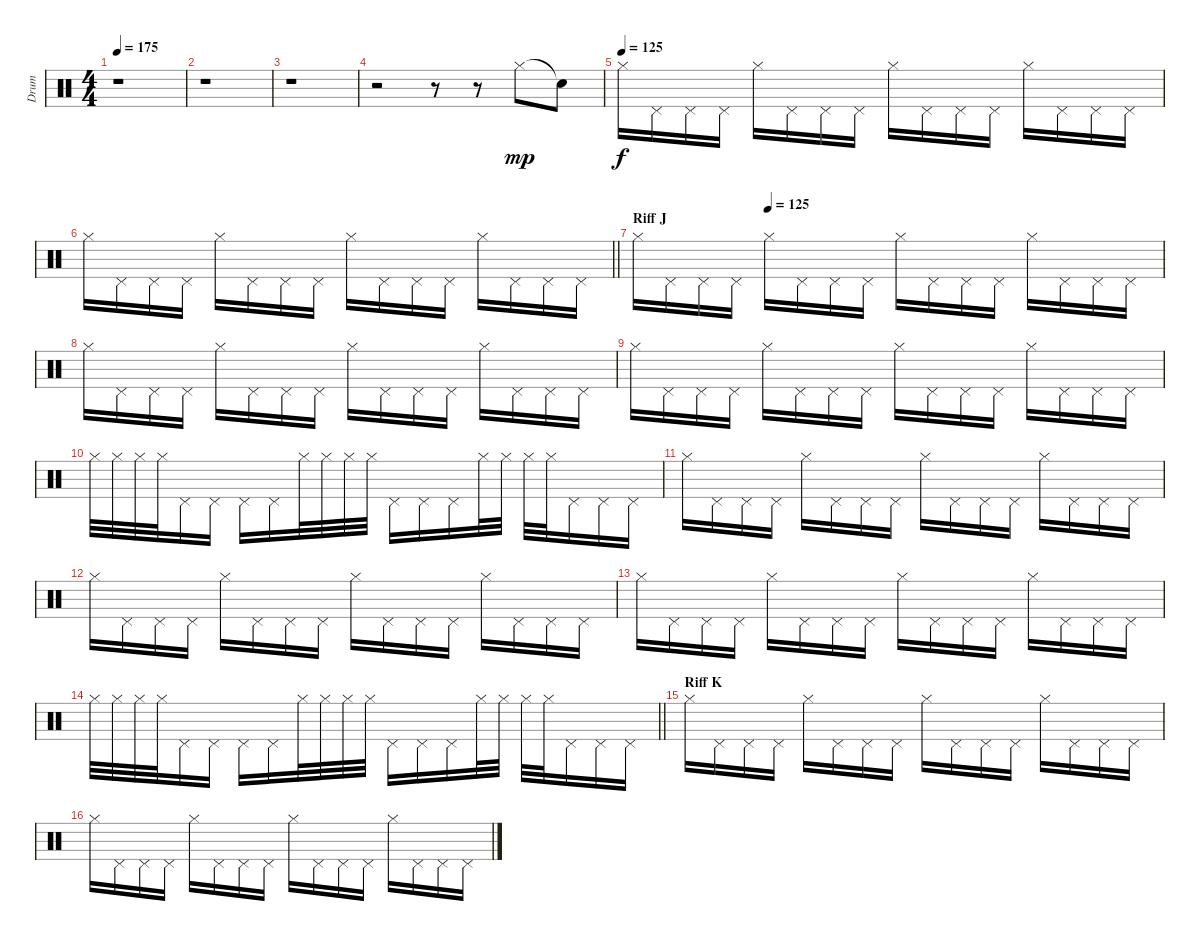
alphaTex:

\track ("Drum" "Drum") {instrument percussion}
\staff {score}
\articulation defaults
\ts (4 4)
\tempo 175
\clef neutral
\ks c
r.1{dy fff} |
r.1 |
r.1 |
r.2 r.8 r.8 "Hi-Hat (closed)".8{dy mp} "Snare (hit)"{t}.8 |
\tempo (125)
"Hi-Hat (closed)".16{dy f} "Pedal Hi-Hat (hit)".16 "Pedal Hi-Hat (hit)".16 "Pedal Hi-Hat (hit)".16 "Hi-Hat (closed)".16 "Pedal Hi-Hat (hit)".16 "Pedal Hi-Hat (hit)".16 "Pedal Hi-Hat (hit)".16 "Hi-Hat (closed)".16 "Pedal Hi-Hat (hit)".16 "Pedal Hi-Hat (hit)".16 "Pedal Hi-Hat (hit)".16 "Hi-Hat (closed)".16 "Pedal Hi-Hat (hit)".16 "Pedal Hi-Hat (hit)".16 "Pedal Hi-Hat (hit)".16 |
\barLineRight lightlight "Hi-Hat (closed)".16 "Pedal Hi-Hat (hit)".16 "Pedal Hi-Hat (hit)".16 "Pedal Hi-Hat (hit)".16 "Hi-Hat (closed)".16 "Pedal Hi-Hat (hit)".16 "Pedal Hi-Hat (hit)".16 "Pedal Hi-Hat (hit)".16 "Hi-Hat (closed)".16 "Pedal Hi-Hat (hit)".16 "Pedal Hi-Hat (hit)".16 "Pedal Hi-Hat (hit)".16 "Hi-Hat (closed)".16 "Pedal Hi-Hat (hit)".16 "Pedal Hi-Hat (hit)".16 "Pedal Hi-Hat (hit)".16
|
\section ("" "Riff J")
\tempo (135 0.25)
\tempo (125 0.25)
"Hi-Hat (closed)".16 "Pedal Hi-Hat (hit)".16 "Pedal Hi-Hat (hit)".16 "Pedal Hi-Hat (hit)".16 "Hi-Hat (closed)".16 "Pedal Hi-Hat (hit)".16 "Pedal Hi-Hat (hit)".16 "Pedal Hi-Hat (hit)".16 "Hi-Hat (closed)".16 "Pedal Hi-Hat (hit)".16 "Pedal Hi-Hat (hit)".16 "Pedal Hi-Hat (hit)".16 "Hi-Hat (closed)".16 "Pedal Hi-Hat (hit)".16 "Pedal Hi-Hat (hit)".16 "Pedal Hi-Hat (hit)".16 |
"Hi-Hat (closed)".16 "Pedal Hi-Hat (hit)".16 "Pedal Hi-Hat (hit)".16 "Pedal Hi-Hat (hit)".16 "Hi-Hat (closed)".16 "Pedal Hi-Hat (hit)".16 "Pedal Hi-Hat (hit)".16 "Pedal Hi-Hat (hit)".16 "Hi-Hat (closed)".16 "Pedal Hi-Hat (hit)".16 "Pedal Hi-Hat (hit)".16 "Pedal Hi-Hat (hit)".16 "Hi-Hat (closed)".16 "Pedal Hi-Hat (hit)".16 "Pedal Hi-Hat (hit)".16 "Pedal Hi-Hat (hit)".16 |
"Hi-Hat (closed)".16 "Pedal Hi-Hat (hit)".16 "Pedal Hi-Hat (hit)".16 "Pedal Hi-Hat (hit)".16 "Hi-Hat (closed)".16 "Pedal Hi-Hat (hit)".16 "Pedal Hi-Hat (hit)".16 "Pedal Hi-Hat (hit)".16 "Hi-Hat (closed)".16 "Pedal Hi-Hat (hit)".16 "Pedal Hi-Hat (hit)".16 "Pedal Hi-Hat (hit)".16 "Hi-Hat (closed)".16 "Pedal Hi-Hat (hit)".16 "Pedal Hi-Hat (hit)".16 "Pedal Hi-Hat (hit)".16 |
"Hi-Hat (closed)".32 "Hi-Hat (closed)".32 "Hi-Hat (closed)".32 "Hi-Hat (closed)".32 "Pedal Hi-Hat (hit)".16 "Pedal Hi-Hat (hit)".16 "Pedal Hi-Hat (hit)".16 "Pedal Hi-Hat (hit)".16 "Hi-Hat (closed)".32 "Hi-Hat (closed)".32 "Hi-Hat (closed)".32 "Hi-Hat (closed)".32 "Pedal Hi-Hat (hit)".16 "Pedal Hi-Hat (hit)".16 "Pedal Hi-Hat (hit)".16 "Hi-Hat (closed)".32 "Hi-Hat (closed)".32 "Hi-Hat (closed)".32 "Hi-Hat (closed)".32 "Pedal Hi-Hat (hit)".16 "Pedal Hi-Hat (hit)".16 "Pedal Hi-Hat (hit)".16 |
"Hi-Hat (closed)".16 "Pedal Hi-Hat (hit)".16 "Pedal Hi-Hat (hit)".16 "Pedal Hi-Hat (hit)".16 "Hi-Hat (closed)".16 "Pedal Hi-Hat (hit)".16 "Pedal Hi-Hat (hit)".16 "Pedal Hi-Hat (hit)".16 "Hi-Hat (closed)".16 "Pedal Hi-Hat (hit)".16 "Pedal Hi-Hat (hit)".16 "Pedal Hi-Hat (hit)".16 "Hi-Hat (closed)".16 "Pedal Hi-Hat (hit)".16 "Pedal Hi-Hat (hit)".16 "Pedal Hi-Hat (hit)".16 |
"Hi-Hat (closed)".16 "Pedal Hi-Hat (hit)".16 "Pedal Hi-Hat (hit)".16 "Pedal Hi-Hat (hit)".16 "Hi-Hat (closed)".16 "Pedal Hi-Hat (hit)".16 "Pedal Hi-Hat (hit)".16 "Pedal Hi-Hat (hit)".16 "Hi-Hat (closed)".16 "Pedal Hi-Hat (hit)".16 "Pedal Hi-Hat (hit)".16 "Pedal Hi-Hat (hit)".16 "Hi-Hat (closed)".16 "Pedal Hi-Hat (hit)".16 "Pedal Hi-Hat (hit)".16 "Pedal Hi-Hat (hit)".16 |
"Hi-Hat (closed)".16 "Pedal Hi-Hat (hit)".16 "Pedal Hi-Hat (hit)".16 "Pedal Hi-Hat (hit)".16 "Hi-Hat (closed)".16 "Pedal Hi-Hat (hit)".16 "Pedal Hi-Hat (hit)".16 "Pedal Hi-Hat (hit)".16 "Hi-Hat (closed)".16 "Pedal Hi-Hat (hit)".16 "Pedal Hi-Hat (hit)".16 "Pedal Hi-Hat (hit)".16 "Hi-Hat (closed)".16 "Pedal Hi-Hat (hit)".16 "Pedal Hi-Hat (hit)".16 "Pedal Hi-Hat (hit)".16 |
\barLineRight lightlight "Hi-Hat (closed)".32 "Hi-Hat (closed)".32 "Hi-Hat (closed)".32 "Hi-Hat (closed)".32 "Pedal Hi-Hat (hit)".16 "Pedal Hi-Hat (hit)".16 "Pedal Hi-Hat (hit)".16 "Pedal Hi-Hat (hit)".16 "Hi-Hat (closed)".32 "Hi-Hat (closed)".32 "Hi-Hat (closed)".32 "Hi-Hat (closed)".32 "Pedal Hi-Hat (hit)".16 "Pedal Hi-Hat (hit)".16 "Pedal Hi-Hat (hit)".16 "Hi-Hat (closed)".32 "Hi-Hat (closed)".32 "Hi-Hat (closed)".32 "Hi-Hat (closed)".32 "Pedal Hi-Hat (hit)".16 "Pedal Hi-Hat (hit)".16 "Pedal Hi-Hat (hit)".16
|
\section ("" "Riff K")
"Hi-Hat (closed)".16 "Pedal Hi-Hat (hit)".16 "Pedal Hi-Hat (hit)".16 "Pedal Hi-Hat (hit)".16 "Hi-Hat (closed)".16 "Pedal Hi-Hat (hit)".16 "Pedal Hi-Hat (hit)".16 "Pedal Hi-Hat (hit)".16 "Hi-Hat (closed)".16 "Pedal Hi-Hat (hit)".16 "Pedal Hi-Hat (hit)".16 "Pedal Hi-Hat (hit)".16 "Hi-Hat (closed)".16 "Pedal Hi-Hat (hit)".16 "Pedal Hi-Hat (hit)".16 "Pedal Hi-Hat (hit)".16 |
"Hi-Hat (closed)".16 "Pedal Hi-Hat (hit)".16 "Pedal Hi-Hat (hit)".16 "Pedal Hi-Hat (hit)".16 "Hi-Hat (closed)".16 "Pedal Hi-Hat (hit)".16 "Pedal Hi-Hat (hit)".16 "Pedal Hi-Hat (hit)".16 "Hi-Hat (closed)".16 "Pedal Hi-Hat (hit)".16 "Pedal Hi-Hat (hit)".16 "Pedal Hi-Hat (hit)".16 "Hi-Hat (closed)".16 "Pedal Hi-Hat (hit)".16 "Pedal Hi-Hat (hit)".16 "Pedal Hi-Hat (hit)".16
